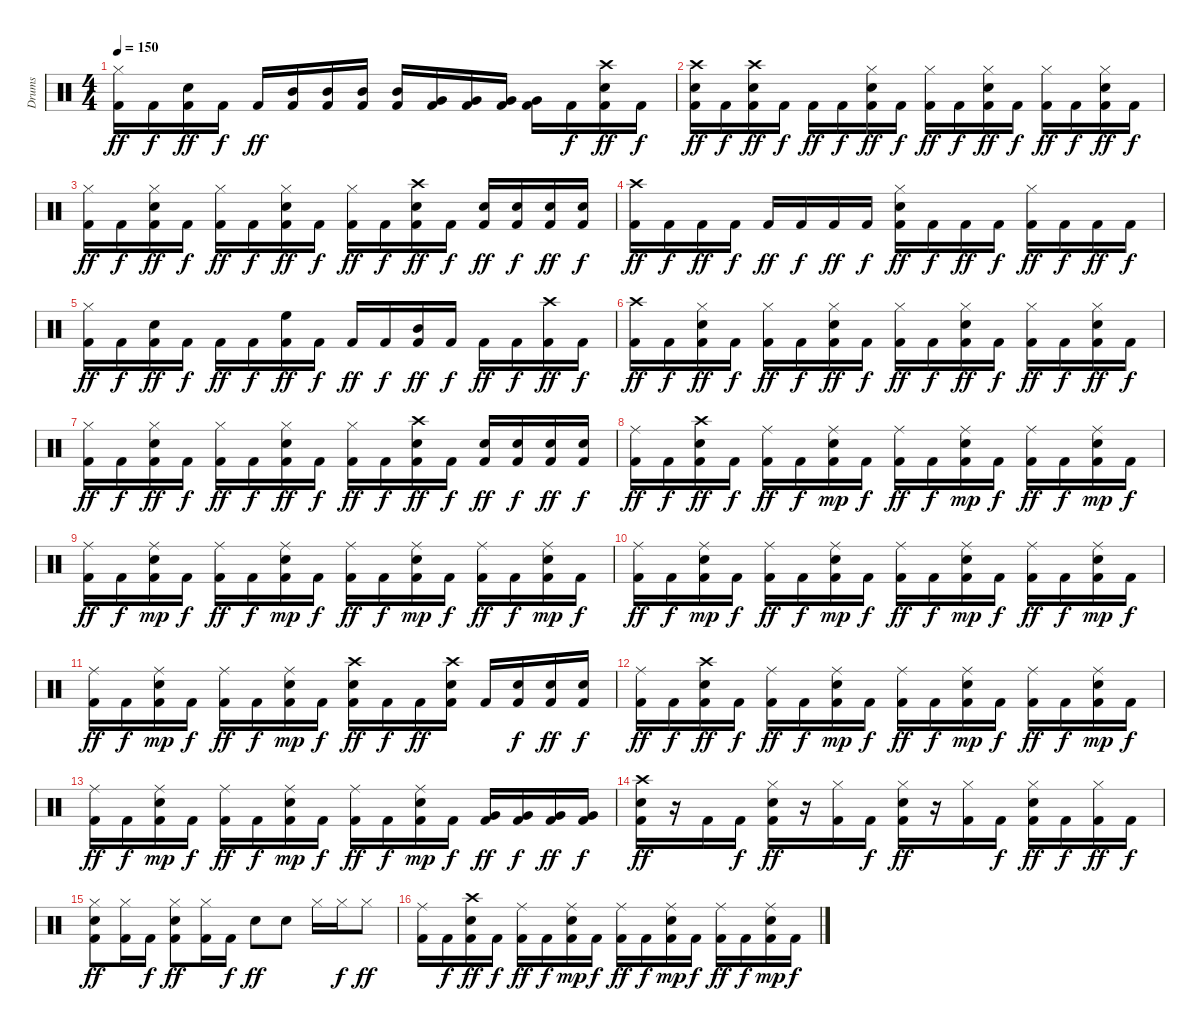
\track ("Drums" "Drums") {instrument percussion}
\staff {score}
\articulation defaults
\ts (4 4)
\tempo 150
\clef neutral
\ks c
("Hi-Hat (closed)" "Kick (hit) 2").16{dy ff} "Kick (hit) 2".16{dy f} ("Snare (hit) 2" "Kick (hit) 2").16{dy ff} "Kick (hit) 2".16{dy f} "Kick (hit) 2".16{dy ff} ("Mid Tom (hit)" "Kick (hit) 2").16 ("Mid Tom (hit)" "Kick (hit) 2").16 ("Mid Tom (hit)" "Kick (hit) 2").16 ("Mid Tom (hit)" "Kick (hit) 2").16 ("Very Low Tom (hit)" "Kick (hit) 2").16 ("Very Low Tom (hit)" "Kick (hit) 2").16 ("Very Low Tom (hit)" "Kick (hit) 2").16 ("Very Low Tom (hit)" "Kick (hit) 2").16 "Kick (hit) 2".16{dy f} ("Kick (hit) 2" "Crash high (hit)" "Snare (hit) 2").16{dy ff} "Kick (hit) 2".16{dy f} |
("Kick (hit) 2" "Snare (hit) 2" "Crash high (hit)").16{dy ff} "Kick (hit) 2".16{dy f} ("Kick (hit) 2" "Snare (hit) 2" "Crash high (hit)").16{dy ff} "Kick (hit) 2".16{dy f} "Kick (hit) 2".16{dy ff} "Kick (hit) 2".16{dy f} ("Kick (hit) 2" "Hi-Hat (closed)" "Snare (hit) 2").16{dy ff} "Kick (hit) 2".16{dy f} ("Hi-Hat (closed)" "Kick (hit) 2").16{dy ff} "Kick (hit) 2".16{dy f} ("Kick (hit) 2" "Hi-Hat (closed)" "Snare (hit) 2").16{dy ff} "Kick (hit) 2".16{dy f} ("Hi-Hat (closed)" "Kick (hit) 2").16{dy ff} "Kick (hit) 2".16{dy f} ("Kick (hit) 2" "Hi-Hat (closed)" "Snare (hit) 2").16{dy ff} "Kick (hit) 2".16{dy f} |
("Hi-Hat (closed)" "Kick (hit) 2").16{dy ff} "Kick (hit) 2".16{dy f} ("Kick (hit) 2" "Hi-Hat (closed)" "Snare (hit) 2").16{dy ff} "Kick (hit) 2".16{dy f} ("Hi-Hat (closed)" "Kick (hit) 2").16{dy ff} "Kick (hit) 2".16{dy f} ("Kick (hit) 2" "Hi-Hat (closed)" "Snare (hit) 2").16{dy ff} "Kick (hit) 2".16{dy f} ("Hi-Hat (closed)" "Kick (hit) 2").16{dy ff} "Kick (hit) 2".16{dy f} ("Snare (hit) 2" "Crash high (hit)" "Kick (hit) 2").16{dy ff} "Kick (hit) 2".16{dy f} ("Snare (hit) 2" "Kick (hit) 2").16{dy ff} ("Snare (hit) 2" "Kick (hit) 2").16{dy f} ("Snare (hit) 2" "Kick (hit) 2").16{dy ff} ("Snare (hit) 2" "Kick (hit) 2").16{dy f} |
("Crash high (hit)" "Kick (hit) 2").16{dy ff} "Kick (hit) 2".16{dy f} "Kick (hit) 2".16{dy ff} "Kick (hit) 2".16{dy f} "Kick (hit) 2".16{dy ff} "Kick (hit) 2".16{dy f} "Kick (hit) 2".16{dy ff} "Kick (hit) 2".16{dy f} ("Snare (hit) 2" "Hi-Hat (closed)" "Kick (hit) 2").16{dy ff} "Kick (hit) 2".16{dy f} "Kick (hit) 2".16{dy ff} "Kick (hit) 2".16{dy f} ("Hi-Hat (closed)" "Kick (hit) 2").16{dy ff} "Kick (hit) 2".16{dy f} "Kick (hit) 2".16{dy ff} "Kick (hit) 2".16{dy f} |
("Hi-Hat (closed)" "Kick (hit) 2").16{dy ff} "Kick (hit) 2".16{dy f} ("Snare (hit) 2" "Kick (hit) 2").16{dy ff} "Kick (hit) 2".16{dy f} "Kick (hit) 2".16{dy ff} "Kick (hit) 2".16{dy f} ("High Floor Tom (hit)" "Kick (hit) 2").16{dy ff} "Kick (hit) 2".16{dy f} "Kick (hit) 2".16{dy ff} "Kick (hit) 2".16{dy f} ("Mid Tom (hit)" "Kick (hit) 2").16{dy ff} "Kick (hit) 2".16{dy f} "Kick (hit) 2".16{dy ff} "Kick (hit) 2".16{dy f} ("Crash high (hit)" "Kick (hit) 2").16{dy ff} "Kick (hit) 2".16{dy f} |
("Crash high (hit)" "Kick (hit) 2").16{dy ff} "Kick (hit) 2".16{dy f} ("Kick (hit) 2" "Hi-Hat (closed)" "Snare (hit) 2").16{dy ff} "Kick (hit) 2".16{dy f} ("Hi-Hat (closed)" "Kick (hit) 2").16{dy ff} "Kick (hit) 2".16{dy f} ("Kick (hit) 2" "Hi-Hat (closed)" "Snare (hit) 2").16{dy ff} "Kick (hit) 2".16{dy f} ("Hi-Hat (closed)" "Kick (hit) 2").16{dy ff} "Kick (hit) 2".16{dy f} ("Kick (hit) 2" "Hi-Hat (closed)" "Snare (hit) 2").16{dy ff} "Kick (hit) 2".16{dy f} ("Hi-Hat (closed)" "Kick (hit) 2").16{dy ff} "Kick (hit) 2".16{dy f} ("Kick (hit) 2" "Hi-Hat (closed)" "Snare (hit) 2").16{dy ff} "Kick (hit) 2".16{dy f} |
("Hi-Hat (closed)" "Kick (hit) 2").16{dy ff} "Kick (hit) 2".16{dy f} ("Kick (hit) 2" "Hi-Hat (closed)" "Snare (hit) 2").16{dy ff} "Kick (hit) 2".16{dy f} ("Hi-Hat (closed)" "Kick (hit) 2").16{dy ff} "Kick (hit) 2".16{dy f} ("Kick (hit) 2" "Hi-Hat (closed)" "Snare (hit) 2").16{dy ff} "Kick (hit) 2".16{dy f} ("Hi-Hat (closed)" "Kick (hit) 2").16{dy ff} "Kick (hit) 2".16{dy f} ("Kick (hit) 2" "Snare (hit) 2" "Crash high (hit)").16{dy ff} "Kick (hit) 2".16{dy f} ("Snare (hit) 2" "Kick (hit) 2").16{dy ff} ("Snare (hit) 2" "Kick (hit) 2").16{dy f} ("Snare (hit) 2" "Kick (hit) 2").16{dy ff} ("Snare (hit) 2" "Kick (hit) 2").16{dy f} |
("Ride (middle)" "Kick (hit) 2").16{dy ff} "Kick (hit) 2".16{dy f} ("Snare (hit) 2" "Crash high (hit)" "Kick (hit) 2").16{dy ff} "Kick (hit) 2".16{dy f} ("Ride (middle)" "Kick (hit) 2").16{dy ff} "Kick (hit) 2".16{dy f} ("Kick (hit) 2" "Snare (hit) 2" "Ride (middle)").16{dy mp} "Kick (hit) 2".16{dy f} ("Ride (middle)" "Kick (hit) 2").16{dy ff} "Kick (hit) 2".16{dy f} ("Kick (hit) 2" "Snare (hit) 2" "Ride (middle)").16{dy mp} "Kick (hit) 2".16{dy f} ("Ride (middle)" "Kick (hit) 2").16{dy ff} "Kick (hit) 2".16{dy f} ("Kick (hit) 2" "Snare (hit) 2" "Ride (middle)").16{dy mp} "Kick (hit) 2".16{dy f} |
("Ride (middle)" "Kick (hit) 2").16{dy ff} "Kick (hit) 2".16{dy f} ("Kick (hit) 2" "Snare (hit) 2" "Ride (middle)").16{dy mp} "Kick (hit) 2".16{dy f} ("Ride (middle)" "Kick (hit) 2").16{dy ff} "Kick (hit) 2".16{dy f} ("Kick (hit) 2" "Snare (hit) 2" "Ride (middle)").16{dy mp} "Kick (hit) 2".16{dy f} ("Ride (middle)" "Kick (hit) 2").16{dy ff} "Kick (hit) 2".16{dy f} ("Kick (hit) 2" "Snare (hit) 2" "Ride (middle)").16{dy mp} "Kick (hit) 2".16{dy f} ("Ride (middle)" "Kick (hit) 2").16{dy ff} "Kick (hit) 2".16{dy f} ("Kick (hit) 2" "Snare (hit) 2" "Ride (middle)").16{dy mp} "Kick (hit) 2".16{dy f} |
("Ride (middle)" "Kick (hit) 2").16{dy ff} "Kick (hit) 2".16{dy f} ("Kick (hit) 2" "Snare (hit) 2" "Ride (middle)").16{dy mp} "Kick (hit) 2".16{dy f} ("Ride (middle)" "Kick (hit) 2").16{dy ff} "Kick (hit) 2".16{dy f} ("Kick (hit) 2" "Snare (hit) 2" "Ride (middle)").16{dy mp} "Kick (hit) 2".16{dy f} ("Ride (middle)" "Kick (hit) 2").16{dy ff} "Kick (hit) 2".16{dy f} ("Kick (hit) 2" "Snare (hit) 2" "Ride (middle)").16{dy mp} "Kick (hit) 2".16{dy f} ("Ride (middle)" "Kick (hit) 2").16{dy ff} "Kick (hit) 2".16{dy f} ("Kick (hit) 2" "Snare (hit) 2" "Ride (middle)").16{dy mp} "Kick (hit) 2".16{dy f} |
("Ride (middle)" "Kick (hit) 2").16{dy ff} "Kick (hit) 2".16{dy f} ("Kick (hit) 2" "Snare (hit) 2" "Ride (middle)").16{dy mp} "Kick (hit) 2".16{dy f} ("Ride (middle)" "Kick (hit) 2").16{dy ff} "Kick (hit) 2".16{dy f} ("Kick (hit) 2" "Snare (hit) 2" "Ride (middle)").16{dy mp} "Kick (hit) 2".16{dy f} ("Kick (hit) 2" "Crash high (hit)" "Snare (hit) 2").16{dy ff} "Kick (hit) 2".16{dy f} "Kick (hit) 2".16{dy ff} ("Kick (hit) 2" "Crash high (hit)" "Snare (hit) 2").16 "Kick (hit) 2".16 ("Snare (hit) 2" "Kick (hit) 2").16{dy f} ("Snare (hit) 2" "Kick (hit) 2").16{dy ff} ("Snare (hit) 2" "Kick (hit) 2").16{dy f} |
("Ride (middle)" "Kick (hit) 2").16{dy ff} "Kick (hit) 2".16{dy f} ("Snare (hit) 2" "Crash high (hit)" "Kick (hit) 2").16{dy ff} "Kick (hit) 2".16{dy f} ("Ride (middle)" "Kick (hit) 2").16{dy ff} "Kick (hit) 2".16{dy f} ("Kick (hit) 2" "Snare (hit) 2" "Ride (middle)").16{dy mp} "Kick (hit) 2".16{dy f} ("Ride (middle)" "Kick (hit) 2").16{dy ff} "Kick (hit) 2".16{dy f} ("Kick (hit) 2" "Snare (hit) 2" "Ride (middle)").16{dy mp} "Kick (hit) 2".16{dy f} ("Ride (middle)" "Kick (hit) 2").16{dy ff} "Kick (hit) 2".16{dy f} ("Kick (hit) 2" "Snare (hit) 2" "Ride (middle)").16{dy mp} "Kick (hit) 2".16{dy f} |
("Ride (middle)" "Kick (hit) 2").16{dy ff} "Kick (hit) 2".16{dy f} ("Kick (hit) 2" "Snare (hit) 2" "Ride (middle)").16{dy mp} "Kick (hit) 2".16{dy f} ("Ride (middle)" "Kick (hit) 2").16{dy ff} "Kick (hit) 2".16{dy f} ("Kick (hit) 2" "Snare (hit) 2" "Ride (middle)").16{dy mp} "Kick (hit) 2".16{dy f} ("Ride (middle)" "Kick (hit) 2").16{dy ff} "Kick (hit) 2".16{dy f} ("Kick (hit) 2" "Snare (hit) 2" "Ride (middle)").16{dy mp} "Kick (hit) 2".16{dy f} ("Very Low Tom (hit)" "Kick (hit) 2").16{dy ff} ("Very Low Tom (hit)" "Kick (hit) 2").16{dy f} ("Very Low Tom (hit)" "Kick (hit) 2").16{dy ff} ("Very Low Tom (hit)" "Kick (hit) 2").16{dy f} |
("Kick (hit) 2" "Snare (hit) 2" "Crash high (hit)").16{dy ff} r.16 "Kick (hit) 2".16 "Kick (hit) 2".16{dy f} ("Kick (hit) 2" "Hi-Hat (closed)" "Snare (hit) 2").16{dy ff} r.16 ("Hi-Hat (closed)" "Kick (hit) 2").16 "Kick (hit) 2".16{dy f} ("Kick (hit) 2" "Hi-Hat (closed)" "Snare (hit) 2").16{dy ff} r.16 ("Hi-Hat (closed)" "Kick (hit) 2").16 "Kick (hit) 2".16{dy f} ("Kick (hit) 2" "Hi-Hat (closed)" "Snare (hit) 2").16{dy ff} "Kick (hit) 2".16{dy f} ("Hi-Hat (closed)" "Kick (hit) 2").16{dy ff} "Kick (hit) 2".16{dy f} |
("Kick (hit) 2" "Hi-Hat (closed)" "Snare (hit) 2").8{dy ff} ("Hi-Hat (closed)" "Kick (hit) 2").16 "Kick (hit) 2".16{dy f} ("Kick (hit) 2" "Hi-Hat (closed)" "Snare (hit) 2").8{dy ff} ("Hi-Hat (closed)" "Kick (hit) 2").16 "Kick (hit) 2".16{dy f} "Snare (hit) 2".8{dy ff} "Snare (hit) 2".8 "Hi-Hat (closed)".16 "Hi-Hat (closed)".16{dy f} "Hi-Hat (closed)".8{dy ff} |
("Ride (middle)" "Kick (hit) 2").16 "Kick (hit) 2".16{dy f} ("Snare (hit) 2" "Crash high (hit)" "Kick (hit) 2").16{dy ff} "Kick (hit) 2".16{dy f} ("Ride (middle)" "Kick (hit) 2").16{dy ff} "Kick (hit) 2".16{dy f} ("Kick (hit) 2" "Snare (hit) 2" "Ride (middle)").16{dy mp} "Kick (hit) 2".16{dy f} ("Ride (middle)" "Kick (hit) 2").16{dy ff} "Kick (hit) 2".16{dy f} ("Kick (hit) 2" "Snare (hit) 2" "Ride (middle)").16{dy mp} "Kick (hit) 2".16{dy f} ("Ride (middle)" "Kick (hit) 2").16{dy ff} "Kick (hit) 2".16{dy f} ("Kick (hit) 2" "Snare (hit) 2" "Ride (middle)").16{dy mp} "Kick (hit) 2".16{dy f}
